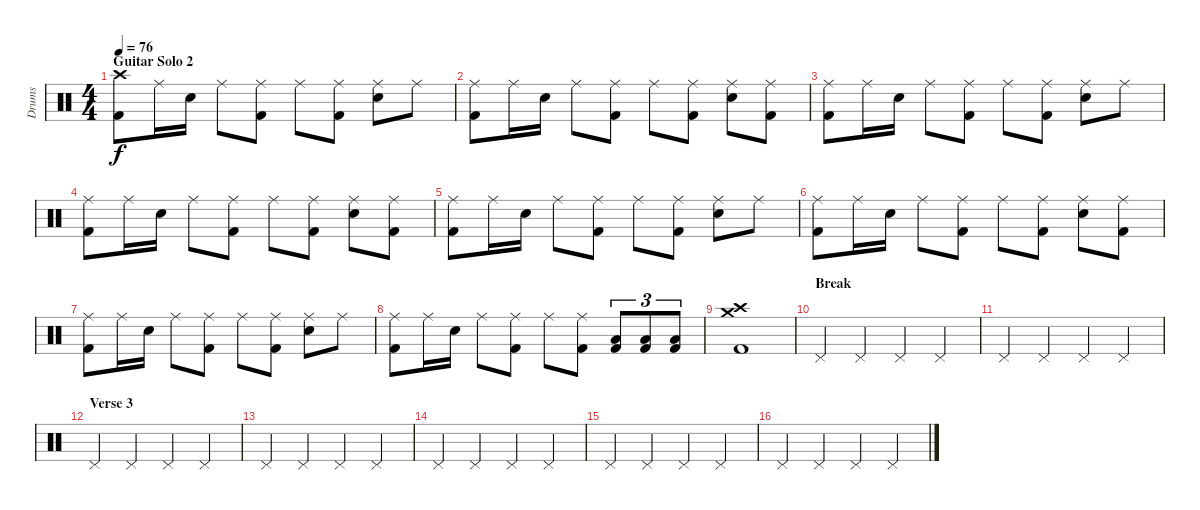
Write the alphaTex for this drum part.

\track ("Drums" "Drums") {instrument percussion}
\staff {score}
\articulation defaults
\ts (4 4)
\section ("" "Guitar Solo 2")
\tempo 76
\clef neutral
\ks c
("Crash high (hit)" "Kick (hit) 2").8{dy f} "Ride (middle)".16 "Electric Snare (hit)".16 "Ride (middle)".8 ("Ride (middle)" "Kick (hit) 2").8 "Ride (middle)".8 ("Ride (middle)" "Kick (hit) 2").8 ("Ride (middle)" "Electric Snare (hit)").8 "Ride (middle)".8 |
("Ride (middle)" "Kick (hit) 2").8 "Ride (middle)".16 "Electric Snare (hit)".16 "Ride (middle)".8 ("Ride (middle)" "Kick (hit) 2").8 "Ride (middle)".8 ("Ride (middle)" "Kick (hit) 2").8 ("Ride (middle)" "Electric Snare (hit)").8 ("Ride (middle)" "Kick (hit) 2").8 |
("Ride (middle)" "Kick (hit) 2").8 "Ride (middle)".16 "Electric Snare (hit)".16 "Ride (middle)".8 ("Ride (middle)" "Kick (hit) 2").8 "Ride (middle)".8 ("Ride (middle)" "Kick (hit) 2").8 ("Ride (middle)" "Electric Snare (hit)").8 "Ride (middle)".8 |
("Ride (middle)" "Kick (hit) 2").8 "Ride (middle)".16 "Electric Snare (hit)".16 "Ride (middle)".8 ("Ride (middle)" "Kick (hit) 2").8 "Ride (middle)".8 ("Ride (middle)" "Kick (hit) 2").8 ("Ride (middle)" "Electric Snare (hit)").8 ("Ride (middle)" "Kick (hit) 2").8 |
("Ride (middle)" "Kick (hit) 2").8 "Ride (middle)".16 "Electric Snare (hit)".16 "Ride (middle)".8 ("Ride (middle)" "Kick (hit) 2").8 "Ride (middle)".8 ("Ride (middle)" "Kick (hit) 2").8 ("Ride (middle)" "Electric Snare (hit)").8 "Ride (middle)".8 |
("Ride (middle)" "Kick (hit) 2").8 "Ride (middle)".16 "Electric Snare (hit)".16 "Ride (middle)".8 ("Ride (middle)" "Kick (hit) 2").8 "Ride (middle)".8 ("Ride (middle)" "Kick (hit) 2").8 ("Ride (middle)" "Electric Snare (hit)").8 ("Ride (middle)" "Kick (hit) 2").8 |
("Ride (middle)" "Kick (hit) 2").8 "Ride (middle)".16 "Electric Snare (hit)".16 "Ride (middle)".8 ("Ride (middle)" "Kick (hit) 2").8 "Ride (middle)".8 ("Ride (middle)" "Kick (hit) 2").8 ("Ride (middle)" "Electric Snare (hit)").8 "Ride (middle)".8 |
("Ride (middle)" "Kick (hit) 2").8 "Ride (middle)".16 "Electric Snare (hit)".16 "Ride (middle)".8 ("Ride (middle)" "Kick (hit) 2").8 "Ride (middle)".8 ("Ride (middle)" "Kick (hit) 2").8 ("Low Tom (hit)" "Kick (hit) 2").8{tu (3 2)} ("Low Tom (hit)" "Kick (hit) 2").8{tu (3 2)} ("Low Tom (hit)" "Kick (hit) 2").8{tu (3 2)} |
("Crash medium (hit)" "Crash high (hit)" "Kick (hit) 2").1 |
\section ("" "Break")
"Pedal Hi-Hat (hit)".4 "Pedal Hi-Hat (hit)".4 "Pedal Hi-Hat (hit)".4 "Pedal Hi-Hat (hit)".4 |
"Pedal Hi-Hat (hit)".4 "Pedal Hi-Hat (hit)".4 "Pedal Hi-Hat (hit)".4 "Pedal Hi-Hat (hit)".4 |
\section ("" "Verse 3")
"Pedal Hi-Hat (hit)".4 "Pedal Hi-Hat (hit)".4 "Pedal Hi-Hat (hit)".4 "Pedal Hi-Hat (hit)".4 |
"Pedal Hi-Hat (hit)".4 "Pedal Hi-Hat (hit)".4 "Pedal Hi-Hat (hit)".4 "Pedal Hi-Hat (hit)".4 |
"Pedal Hi-Hat (hit)".4 "Pedal Hi-Hat (hit)".4 "Pedal Hi-Hat (hit)".4 "Pedal Hi-Hat (hit)".4 |
"Pedal Hi-Hat (hit)".4 "Pedal Hi-Hat (hit)".4 "Pedal Hi-Hat (hit)".4 "Pedal Hi-Hat (hit)".4 |
"Pedal Hi-Hat (hit)".4 "Pedal Hi-Hat (hit)".4 "Pedal Hi-Hat (hit)".4 "Pedal Hi-Hat (hit)".4
